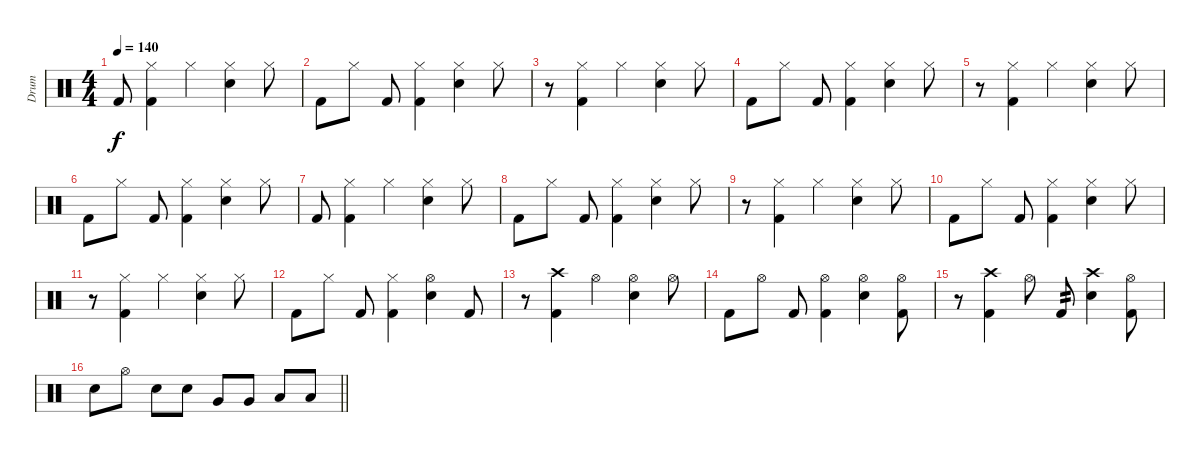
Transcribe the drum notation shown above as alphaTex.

\track ("Drum" "Drum") {instrument percussion}
\staff {score}
\articulation defaults
\ts (4 4)
\tempo 140
\clef neutral
\ks c "Kick (hit) 2".8{dy f}
("Hi-Hat (closed)" "Kick (hit) 2").4 "Hi-Hat (closed)".4 ("Electric Snare (hit)" "Hi-Hat (closed)").4 "Hi-Hat (closed)".8 |
"Kick (hit) 2".8 "Hi-Hat (closed)".8 "Kick (hit) 2".8 ("Hi-Hat (closed)" "Kick (hit) 2").4 ("Hi-Hat (closed)" "Electric Snare (hit)").4 "Hi-Hat (closed)".8 |
r.8 ("Hi-Hat (closed)" "Kick (hit) 2").4 "Hi-Hat (closed)".4 ("Electric Snare (hit)" "Hi-Hat (closed)").4 "Hi-Hat (closed)".8 |
"Kick (hit) 2".8 "Hi-Hat (closed)".8 "Kick (hit) 2".8 ("Hi-Hat (closed)" "Kick (hit) 2").4 ("Hi-Hat (closed)" "Electric Snare (hit)").4 "Hi-Hat (closed)".8 |
r.8 ("Hi-Hat (closed)" "Kick (hit) 2").4 "Hi-Hat (closed)".4 ("Electric Snare (hit)" "Hi-Hat (closed)").4 "Hi-Hat (closed)".8 |
"Kick (hit) 2".8 "Hi-Hat (closed)".8 "Kick (hit) 2".8 ("Hi-Hat (closed)" "Kick (hit) 2").4 ("Hi-Hat (closed)" "Electric Snare (hit)").4 "Hi-Hat (closed)".8 |
"Kick (hit) 2".8 ("Hi-Hat (closed)" "Kick (hit) 2").4 "Hi-Hat (closed)".4 ("Electric Snare (hit)" "Hi-Hat (closed)").4 "Hi-Hat (closed)".8 |
"Kick (hit) 2".8 "Hi-Hat (closed)".8 "Kick (hit) 2".8 ("Hi-Hat (closed)" "Kick (hit) 2").4 ("Hi-Hat (closed)" "Electric Snare (hit)").4 "Hi-Hat (closed)".8 |
r.8 ("Hi-Hat (closed)" "Kick (hit) 2").4 "Hi-Hat (closed)".4 ("Electric Snare (hit)" "Hi-Hat (closed)").4 "Hi-Hat (closed)".8 |
"Kick (hit) 2".8 "Hi-Hat (closed)".8 "Kick (hit) 2".8 ("Hi-Hat (closed)" "Kick (hit) 2").4 ("Hi-Hat (closed)" "Electric Snare (hit)").4 "Hi-Hat (closed)".8 |
r.8 ("Hi-Hat (closed)" "Kick (hit) 2").4 "Hi-Hat (closed)".4 ("Electric Snare (hit)" "Hi-Hat (closed)").4 "Hi-Hat (closed)".8 |
"Kick (hit) 2".8 "Hi-Hat (closed)".8 "Kick (hit) 2".8 ("Hi-Hat (closed)" "Kick (hit) 2").4 ("Hi-Hat (open)" "Electric Snare (hit)").4 "Kick (hit) 2".8 |
r.8 ("Kick (hit) 2" "Crash high (hit)").4 "Hi-Hat (open)".4 ("Hi-Hat (open)" "Electric Snare (hit)").4 "Hi-Hat (open)".8 |
"Kick (hit) 2".8 "Hi-Hat (open)".8 "Kick (hit) 2".8 ("Hi-Hat (open)" "Kick (hit) 2").4 ("Electric Snare (hit)" "Hi-Hat (open)").4 ("Hi-Hat (open)" "Kick (hit) 2").8 |
r.8 ("Kick (hit) 2" "Crash high (hit)").4 "Hi-Hat (open)".8 "Kick (hit) 2".8{tp 2} ("Crash high (hit)" "Electric Snare (hit)").4 ("Hi-Hat (open)" "Kick (hit) 2").8 |
\barLineRight lightlight "Electric Snare (hit)".8 "Hi-Hat (open)".8 "Electric Snare (hit)".8 "Electric Snare (hit)".8 "Very Low Tom (hit)".8 "Very Low Tom (hit)".8 "Low Floor Tom (hit)".8 "Low Floor Tom (hit)".8
